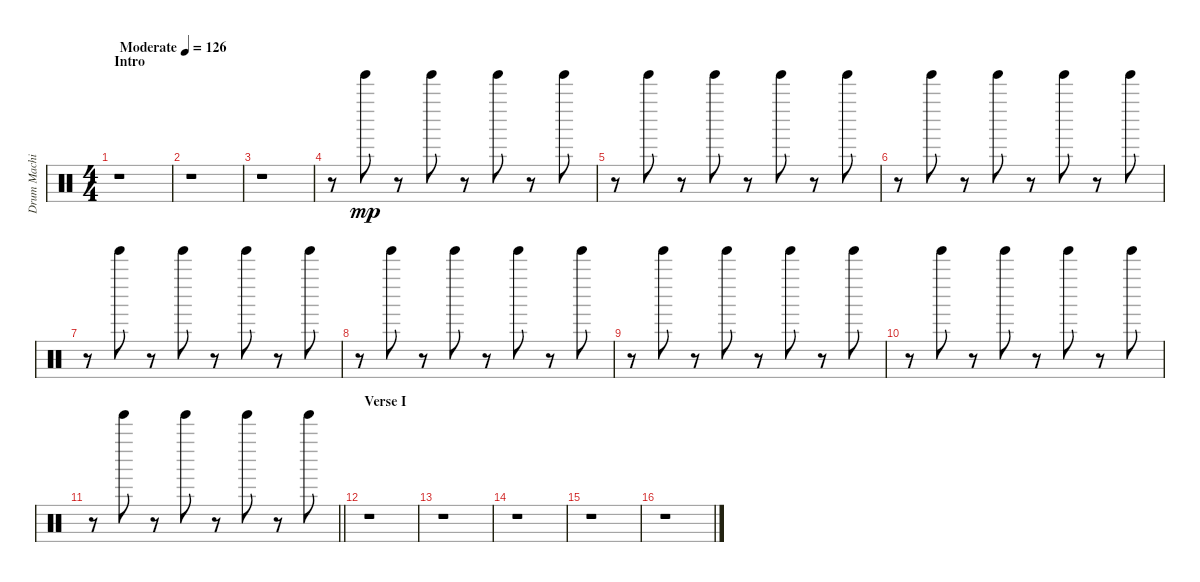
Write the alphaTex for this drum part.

\track ("Drum Machine" "Drum Machi") {instrument percussion}
\staff {score}
\articulation defaults
\ts (4 4)
\section ("" "Intro")
\tempo (126 "Moderate")
\clef neutral
\ks c
r.1{dy mp} |
r.1 |
r.1 |
r.8 "Tinkle Bell (hit)".8 r.8 "Tinkle Bell (hit)".8 r.8 "Tinkle Bell (hit)".8 r.8 "Tinkle Bell (hit)".8 |
r.8 "Tinkle Bell (hit)".8 r.8 "Tinkle Bell (hit)".8 r.8 "Tinkle Bell (hit)".8 r.8 "Tinkle Bell (hit)".8 |
r.8 "Tinkle Bell (hit)".8 r.8 "Tinkle Bell (hit)".8 r.8 "Tinkle Bell (hit)".8 r.8 "Tinkle Bell (hit)".8 |
r.8 "Tinkle Bell (hit)".8 r.8 "Tinkle Bell (hit)".8 r.8 "Tinkle Bell (hit)".8 r.8 "Tinkle Bell (hit)".8 |
r.8 "Tinkle Bell (hit)".8 r.8 "Tinkle Bell (hit)".8 r.8 "Tinkle Bell (hit)".8 r.8 "Tinkle Bell (hit)".8 |
r.8 "Tinkle Bell (hit)".8 r.8 "Tinkle Bell (hit)".8 r.8 "Tinkle Bell (hit)".8 r.8 "Tinkle Bell (hit)".8 |
r.8 "Tinkle Bell (hit)".8 r.8 "Tinkle Bell (hit)".8 r.8 "Tinkle Bell (hit)".8 r.8 "Tinkle Bell (hit)".8 |
\barLineRight lightlight
r.8 "Tinkle Bell (hit)".8 r.8 "Tinkle Bell (hit)".8 r.8 "Tinkle Bell (hit)".8 r.8 "Tinkle Bell (hit)".8 |
\section ("" "Verse I")
r.1 |
r.1 |
r.1 |
r.1 |
r.1
